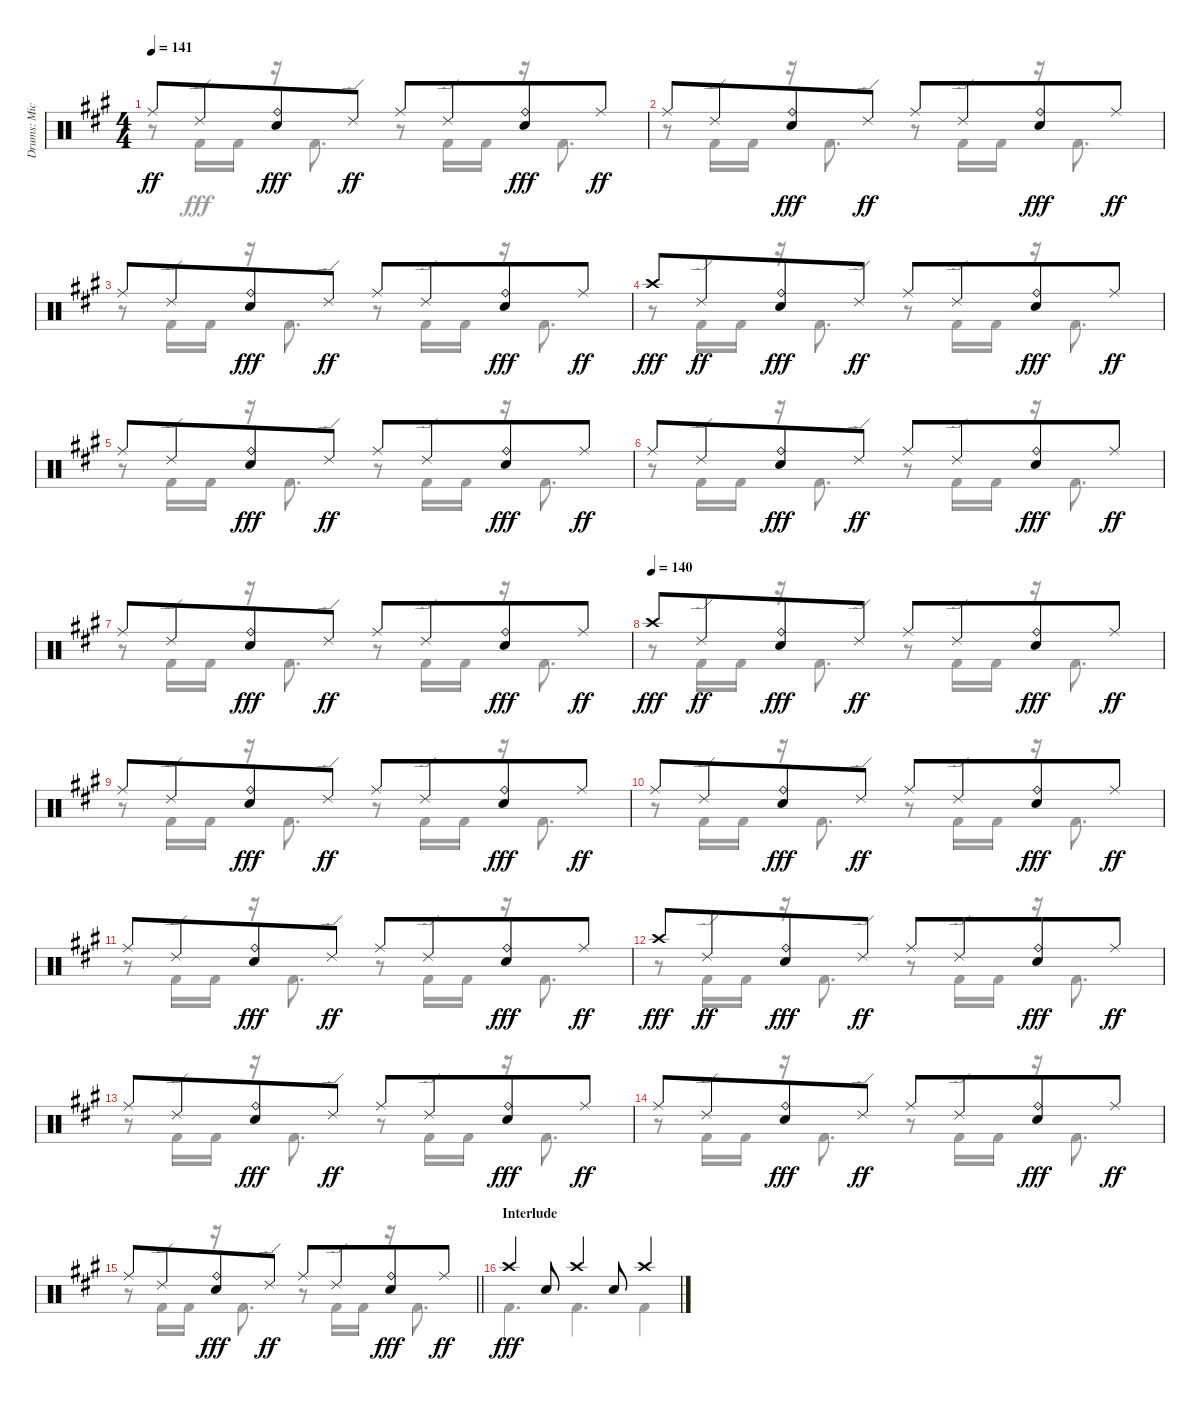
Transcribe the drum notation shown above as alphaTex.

\track ("Drums: Mick" "Drums: Mic") {instrument percussion}
\staff {score}
\articulation defaults
\voice
\ts (4 4)
\tempo 141
\clef neutral
\ks a "Ride (middle)".8{dy ff} "Ride (edge) 2".8{beam merge}
("Ride (bell)" "Snare (hit) 2").8{dy fff} "Ride (edge) 2".8{dy ff} "Ride (middle)".8{beam merge} "Ride (edge) 2".8{beam merge} ("Ride (bell)" "Snare (hit) 2").8{dy fff} "Ride (middle)".8{dy ff} |
"Ride (middle)".8 "Ride (edge) 2".8{beam merge} ("Ride (bell)" "Snare (hit) 2").8{dy fff} "Ride (edge) 2".8{dy ff} "Ride (middle)".8{beam merge} "Ride (edge) 2".8{beam merge} ("Ride (bell)" "Snare (hit) 2").8{dy fff} "Ride (middle)".8{dy ff} |
"Ride (middle)".8 "Ride (edge) 2".8{beam merge} ("Ride (bell)" "Snare (hit) 2").8{dy fff} "Ride (edge) 2".8{dy ff} "Ride (middle)".8{beam merge} "Ride (edge) 2".8{beam merge} ("Ride (bell)" "Snare (hit) 2").8{dy fff} "Ride (middle)".8{dy ff} |
"Crash high (hit)".8{dy fff} "Ride (edge) 2".8{dy ff beam merge} ("Ride (bell)" "Snare (hit) 2").8{dy fff} "Ride (edge) 2".8{dy ff} "Ride (middle)".8{beam merge} "Ride (edge) 2".8{beam merge} ("Ride (bell)" "Snare (hit) 2").8{dy fff} "Ride (middle)".8{dy ff} |
"Ride (middle)".8 "Ride (edge) 2".8{beam merge} ("Ride (bell)" "Snare (hit) 2").8{dy fff} "Ride (edge) 2".8{dy ff} "Ride (middle)".8{beam merge} "Ride (edge) 2".8{beam merge} ("Ride (bell)" "Snare (hit) 2").8{dy fff} "Ride (middle)".8{dy ff} |
"Ride (middle)".8 "Ride (edge) 2".8{beam merge} ("Ride (bell)" "Snare (hit) 2").8{dy fff} "Ride (edge) 2".8{dy ff} "Ride (middle)".8{beam merge} "Ride (edge) 2".8{beam merge} ("Ride (bell)" "Snare (hit) 2").8{dy fff} "Ride (middle)".8{dy ff} |
"Ride (middle)".8 "Ride (edge) 2".8{beam merge} ("Ride (bell)" "Snare (hit) 2").8{dy fff} "Ride (edge) 2".8{dy ff} "Ride (middle)".8{beam merge} "Ride (edge) 2".8{beam merge} ("Ride (bell)" "Snare (hit) 2").8{dy fff} "Ride (middle)".8{dy ff} |
\tempo (140)
"Crash high (hit)".8{dy fff} "Ride (edge) 2".8{dy ff beam merge} ("Ride (bell)" "Snare (hit) 2").8{dy fff} "Ride (edge) 2".8{dy ff} "Ride (middle)".8{beam merge} "Ride (edge) 2".8{beam merge} ("Ride (bell)" "Snare (hit) 2").8{dy fff} "Ride (middle)".8{dy ff} |
"Ride (middle)".8 "Ride (edge) 2".8{beam merge} ("Ride (bell)" "Snare (hit) 2").8{dy fff} "Ride (edge) 2".8{dy ff} "Ride (middle)".8{beam merge} "Ride (edge) 2".8{beam merge} ("Ride (bell)" "Snare (hit) 2").8{dy fff} "Ride (middle)".8{dy ff} |
"Ride (middle)".8 "Ride (edge) 2".8{beam merge} ("Ride (bell)" "Snare (hit) 2").8{dy fff} "Ride (edge) 2".8{dy ff} "Ride (middle)".8{beam merge} "Ride (edge) 2".8{beam merge} ("Ride (bell)" "Snare (hit) 2").8{dy fff} "Ride (middle)".8{dy ff} |
"Ride (middle)".8 "Ride (edge) 2".8{beam merge} ("Ride (bell)" "Snare (hit) 2").8{dy fff} "Ride (edge) 2".8{dy ff} "Ride (middle)".8{beam merge} "Ride (edge) 2".8{beam merge} ("Ride (bell)" "Snare (hit) 2").8{dy fff} "Ride (middle)".8{dy ff} |
"Crash high (hit)".8{dy fff} "Ride (edge) 2".8{dy ff beam merge} ("Ride (bell)" "Snare (hit) 2").8{dy fff} "Ride (edge) 2".8{dy ff} "Ride (middle)".8{beam merge} "Ride (edge) 2".8{beam merge} ("Ride (bell)" "Snare (hit) 2").8{dy fff} "Ride (middle)".8{dy ff} |
"Ride (middle)".8 "Ride (edge) 2".8{beam merge} ("Ride (bell)" "Snare (hit) 2").8{dy fff} "Ride (edge) 2".8{dy ff} "Ride (middle)".8{beam merge} "Ride (edge) 2".8{beam merge} ("Ride (bell)" "Snare (hit) 2").8{dy fff} "Ride (middle)".8{dy ff} |
"Ride (middle)".8 "Ride (edge) 2".8{beam merge} ("Ride (bell)" "Snare (hit) 2").8{dy fff} "Ride (edge) 2".8{dy ff} "Ride (middle)".8{beam merge} "Ride (edge) 2".8{beam merge} ("Ride (bell)" "Snare (hit) 2").8{dy fff} "Ride (middle)".8{dy ff} |
\barLineRight lightlight "Ride (middle)".8 "Ride (edge) 2".8{beam merge}
("Ride (bell)" "Snare (hit) 2").8{dy fff} "Ride (edge) 2".8{dy ff} "Ride (middle)".8{beam merge} "Ride (edge) 2".8{beam merge} ("Ride (bell)" "Snare (hit) 2").8{dy fff} "Ride (middle)".8{dy ff} |
\section ("" "Interlude")
"Crash high (hit)".4{dy fff} "Snare (hit) 2".8 "Crash high (hit)".4 "Snare (hit) 2".8 "Crash high (hit)".4
\voice
\clef neutral
\ottava regular
\simile none
\ks a
r.8{dy fff} "Kick (hit) 2".16 "Kick (hit) 2".16 r.16 "Kick (hit) 2".8{d} r.8 "Kick (hit) 2".16 "Kick (hit) 2".16 r.16 "Kick (hit) 2".8{d} |
r.8 "Kick (hit) 2".16 "Kick (hit) 2".16 r.16 "Kick (hit) 2".8{d} r.8 "Kick (hit) 2".16 "Kick (hit) 2".16 r.16 "Kick (hit) 2".8{d} |
r.8 "Kick (hit) 2".16 "Kick (hit) 2".16 r.16 "Kick (hit) 2".8{d} r.8 "Kick (hit) 2".16 "Kick (hit) 2".16 r.16 "Kick (hit) 2".8{d} |
r.8 "Kick (hit) 2".16 "Kick (hit) 2".16 r.16 "Kick (hit) 2".8{d} r.8 "Kick (hit) 2".16 "Kick (hit) 2".16 r.16 "Kick (hit) 2".8{d} |
r.8 "Kick (hit) 2".16 "Kick (hit) 2".16 r.16 "Kick (hit) 2".8{d} r.8 "Kick (hit) 2".16 "Kick (hit) 2".16 r.16 "Kick (hit) 2".8{d} |
r.8 "Kick (hit) 2".16 "Kick (hit) 2".16 r.16 "Kick (hit) 2".8{d} r.8 "Kick (hit) 2".16 "Kick (hit) 2".16 r.16 "Kick (hit) 2".8{d} |
r.8 "Kick (hit) 2".16 "Kick (hit) 2".16 r.16 "Kick (hit) 2".8{d} r.8 "Kick (hit) 2".16 "Kick (hit) 2".16 r.16 "Kick (hit) 2".8{d} |
r.8 "Kick (hit) 2".16 "Kick (hit) 2".16 r.16 "Kick (hit) 2".8{d} r.8 "Kick (hit) 2".16 "Kick (hit) 2".16 r.16 "Kick (hit) 2".8{d} |
r.8 "Kick (hit) 2".16 "Kick (hit) 2".16 r.16 "Kick (hit) 2".8{d} r.8 "Kick (hit) 2".16 "Kick (hit) 2".16 r.16 "Kick (hit) 2".8{d} |
r.8 "Kick (hit) 2".16 "Kick (hit) 2".16 r.16 "Kick (hit) 2".8{d} r.8 "Kick (hit) 2".16 "Kick (hit) 2".16 r.16 "Kick (hit) 2".8{d} |
r.8 "Kick (hit) 2".16 "Kick (hit) 2".16 r.16 "Kick (hit) 2".8{d} r.8 "Kick (hit) 2".16 "Kick (hit) 2".16 r.16 "Kick (hit) 2".8{d} |
r.8 "Kick (hit) 2".16 "Kick (hit) 2".16 r.16 "Kick (hit) 2".8{d} r.8 "Kick (hit) 2".16 "Kick (hit) 2".16 r.16 "Kick (hit) 2".8{d} |
r.8 "Kick (hit) 2".16 "Kick (hit) 2".16 r.16 "Kick (hit) 2".8{d} r.8 "Kick (hit) 2".16 "Kick (hit) 2".16 r.16 "Kick (hit) 2".8{d} |
r.8 "Kick (hit) 2".16 "Kick (hit) 2".16 r.16 "Kick (hit) 2".8{d} r.8 "Kick (hit) 2".16 "Kick (hit) 2".16 r.16 "Kick (hit) 2".8{d} |
\barLineRight lightlight
r.8 "Kick (hit) 2".16 "Kick (hit) 2".16 r.16 "Kick (hit) 2".8{d} r.8 "Kick (hit) 2".16 "Kick (hit) 2".16 r.16 "Kick (hit) 2".8{d} |
"Kick (hit) 2".4{d} "Kick (hit) 2".4{d} "Kick (hit) 2".4
